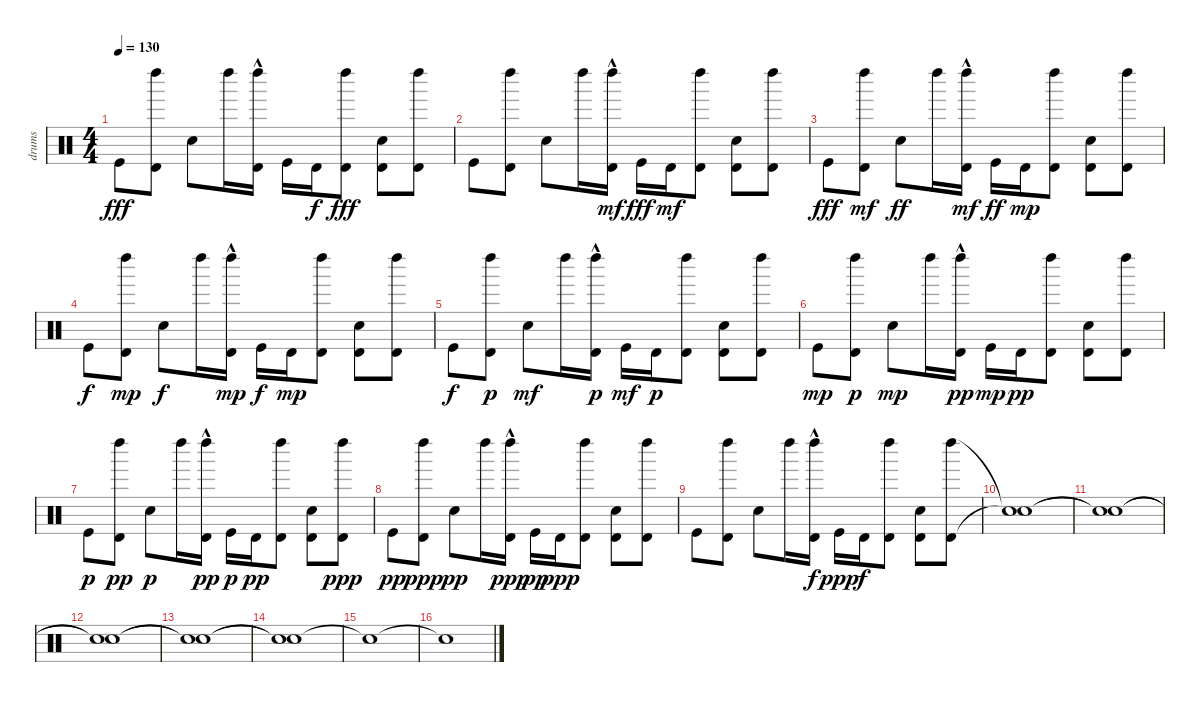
\track ("drums" "drums") {instrument percussion}
\staff {score}
\articulation defaults
\ts (4 4)
\tempo 130
\clef neutral
\ks c "Kick (hit)".8{dy fff}
("Left Maraca (hit)" "Timbale high (hit)").8 "Snare (hit) 2".8 "Left Maraca (hit)".16 ("Left Maraca (hit)"{hac} "Timbale high (hit)").16 "Kick (hit)".16 "Timbale high (hit)".16{dy f} ("Left Maraca (hit)" "Timbale high (hit)").8{dy fff} ("Snare (hit) 2" "Timbale high (hit)").8 ("Left Maraca (hit)" "Timbale high (hit)").8 |
"Kick (hit)".8 ("Left Maraca (hit)" "Timbale high (hit)").8 "Snare (hit) 2".8 "Left Maraca (hit)".16 ("Left Maraca (hit)"{hac} "Timbale high (hit)").16{dy mf} "Kick (hit)".16{dy fff} "Timbale high (hit)".16{dy mf} ("Left Maraca (hit)" "Timbale high (hit)").8 ("Snare (hit) 2" "Timbale high (hit)").8 ("Left Maraca (hit)" "Timbale high (hit)").8 |
"Kick (hit)".8{dy fff} ("Left Maraca (hit)" "Timbale high (hit)").8{dy mf} "Snare (hit) 2".8{dy ff} "Left Maraca (hit)".16 ("Left Maraca (hit)"{hac} "Timbale high (hit)").16{dy mf} "Kick (hit)".16{dy ff} "Timbale high (hit)".16{dy mp} ("Left Maraca (hit)" "Timbale high (hit)").8 ("Snare (hit) 2" "Timbale high (hit)").8 ("Left Maraca (hit)" "Timbale high (hit)").8 |
"Kick (hit)".8{dy f} ("Left Maraca (hit)" "Timbale high (hit)").8{dy mp} "Snare (hit) 2".8{dy f} "Left Maraca (hit)".16 ("Left Maraca (hit)"{hac} "Timbale high (hit)").16{dy mp} "Kick (hit)".16{dy f} "Timbale high (hit)".16{dy mp} ("Left Maraca (hit)" "Timbale high (hit)").8 ("Snare (hit) 2" "Timbale high (hit)").8 ("Left Maraca (hit)" "Timbale high (hit)").8 |
"Kick (hit)".8{dy f} ("Left Maraca (hit)" "Timbale high (hit)").8{dy p} "Snare (hit) 2".8{dy mf} "Left Maraca (hit)".16 ("Left Maraca (hit)"{hac} "Timbale high (hit)").16{dy p} "Kick (hit)".16{dy mf} "Timbale high (hit)".16{dy p} ("Left Maraca (hit)" "Timbale high (hit)").8 ("Snare (hit) 2" "Timbale high (hit)").8 ("Left Maraca (hit)" "Timbale high (hit)").8 |
"Kick (hit)".8{dy mp} ("Left Maraca (hit)" "Timbale high (hit)").8{dy p} "Snare (hit) 2".8{dy mp} "Left Maraca (hit)".16 ("Left Maraca (hit)"{hac} "Timbale high (hit)").16{dy pp} "Kick (hit)".16{dy mp} "Timbale high (hit)".16{dy pp} ("Left Maraca (hit)" "Timbale high (hit)").8 ("Snare (hit) 2" "Timbale high (hit)").8 ("Left Maraca (hit)" "Timbale high (hit)").8 |
"Kick (hit)".8{dy p} ("Left Maraca (hit)" "Timbale high (hit)").8{dy pp} "Snare (hit) 2".8{dy p} "Left Maraca (hit)".16 ("Left Maraca (hit)"{hac} "Timbale high (hit)").16{dy pp} "Kick (hit)".16{dy p} "Timbale high (hit)".16{dy pp} ("Left Maraca (hit)" "Timbale high (hit)").8 ("Snare (hit) 2" "Timbale high (hit)").8 ("Left Maraca (hit)" "Timbale high (hit)").8{dy ppp} |
"Kick (hit)".8{dy pp} ("Left Maraca (hit)" "Timbale high (hit)").8{dy ppp} "Snare (hit) 2".8{dy pp} "Left Maraca (hit)".16 ("Left Maraca (hit)"{hac} "Timbale high (hit)").16{dy ppp} "Kick (hit)".16{dy pp} "Timbale high (hit)".16{dy ppp} ("Left Maraca (hit)" "Timbale high (hit)").8 ("Snare (hit) 2" "Timbale high (hit)").8 ("Left Maraca (hit)" "Timbale high (hit)").8 |
"Kick (hit)".8 ("Left Maraca (hit)" "Timbale high (hit)").8 "Snare (hit) 2".8 "Left Maraca (hit)".16 ("Left Maraca (hit)"{hac} "Timbale high (hit)").16{dy f} "Kick (hit)".16{dy ppp} "Timbale high (hit)".16{dy f} ("Left Maraca (hit)" "Timbale high (hit)").8 ("Snare (hit) 2" "Timbale high (hit)").8 ("Left Maraca (hit)" "Timbale high (hit)").8 |
("Snare (hit)"{t} "Snare (hit)"{t}).1 |
("Snare (hit)"{t} "Snare (hit)"{t}).1 |
("Snare (hit)"{t} "Snare (hit)"{t}).1 |
("Snare (hit)"{t} "Snare (hit)"{t}).1 |
("Snare (hit)"{t} "Snare (hit)"{t}).1 |
"Snare (hit)"{t}.1 |
"Snare (hit)"{t}.1
